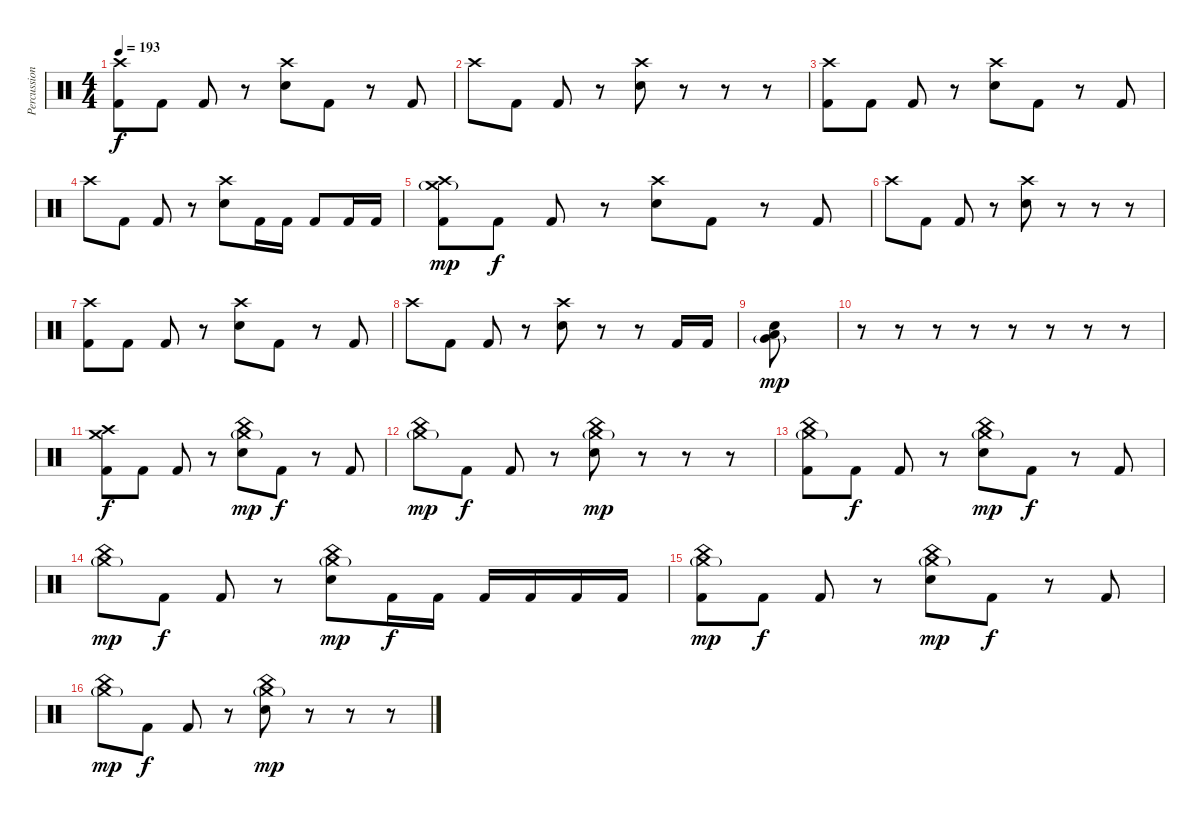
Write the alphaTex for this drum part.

\track ("Percussion" "Percussion") {instrument percussion}
\staff {score}
\articulation defaults
\ts (4 4)
\tempo 193
\clef neutral
\ks c
("Crash high (hit)" "Kick (hit) 2").8{dy f} "Kick (hit) 2".8 "Kick (hit) 2".8 r.8 ("Crash high (hit)" "Snare (hit) 2").8 "Kick (hit) 2".8 r.8 "Kick (hit) 2".8 |
"Crash high (hit)".8 "Kick (hit) 2".8 "Kick (hit) 2".8 r.8 ("Crash high (hit)" "Snare (hit) 2").8 r.8 r.8 r.8 |
("Crash high (hit)" "Kick (hit) 2").8 "Kick (hit) 2".8 "Kick (hit) 2".8 r.8 ("Crash high (hit)" "Snare (hit) 2").8 "Kick (hit) 2".8 r.8 "Kick (hit) 2".8 |
"Crash high (hit)".8 "Kick (hit) 2".8 "Kick (hit) 2".8 r.8 ("Crash high (hit)" "Snare (hit) 2").8 "Kick (hit) 2".16 "Kick (hit) 2".16 "Kick (hit) 2".8 "Kick (hit) 2".16 "Kick (hit) 2".16 |
("Crash high (hit)" "Crash medium (hit)"{g} "Kick (hit) 2").8{dy mp} "Kick (hit) 2".8{dy f} "Kick (hit) 2".8 r.8 ("Crash high (hit)" "Snare (hit) 2").8 "Kick (hit) 2".8 r.8 "Kick (hit) 2".8 |
"Crash high (hit)".8 "Kick (hit) 2".8 "Kick (hit) 2".8 r.8 ("Crash high (hit)" "Snare (hit) 2").8 r.8 r.8 r.8 |
("Crash high (hit)" "Kick (hit) 2").8 "Kick (hit) 2".8 "Kick (hit) 2".8 r.8 ("Crash high (hit)" "Snare (hit) 2").8 "Kick (hit) 2".8 r.8 "Kick (hit) 2".8 |
"Crash high (hit)".8 "Kick (hit) 2".8 "Kick (hit) 2".8 r.8 ("Crash high (hit)" "Snare (hit) 2").8 r.8 r.8 "Kick (hit) 2".16 "Kick (hit) 2".16 |
("Very Low Tom (hit)"{g} "Low Floor Tom (hit)" "Snare (hit) 2").8{dy mp} |
r.8 r.8 r.8 r.8 r.8 r.8 r.8 r.8 |
("Crash medium (hit)" "Crash high (hit)" "Kick (hit) 2").8{dy f} "Kick (hit) 2".8 "Kick (hit) 2".8 r.8 ("Crash medium (hit)"{g} "China (hit)" "Snare (hit) 2").8{dy mp} "Kick (hit) 2".8{dy f} r.8 "Kick (hit) 2".8 |
("Crash medium (hit)"{g} "China (hit)").8{dy mp} "Kick (hit) 2".8{dy f} "Kick (hit) 2".8 r.8 ("Crash medium (hit)"{g} "China (hit)" "Snare (hit) 2").8{dy mp} r.8 r.8 r.8 |
("Crash medium (hit)"{g} "China (hit)" "Kick (hit) 2").8 "Kick (hit) 2".8{dy f} "Kick (hit) 2".8 r.8 ("Crash medium (hit)"{g} "China (hit)" "Snare (hit) 2").8{dy mp} "Kick (hit) 2".8{dy f} r.8 "Kick (hit) 2".8 |
("Crash medium (hit)"{g} "China (hit)").8{dy mp} "Kick (hit) 2".8{dy f} "Kick (hit) 2".8 r.8 ("Crash medium (hit)"{g} "China (hit)" "Snare (hit) 2").8{dy mp} "Kick (hit) 2".16{dy f} "Kick (hit) 2".16 "Kick (hit) 2".16 "Kick (hit) 2".16 "Kick (hit) 2".16 "Kick (hit) 2".16 |
("Crash medium (hit)"{g} "China (hit)" "Kick (hit) 2").8{dy mp} "Kick (hit) 2".8{dy f} "Kick (hit) 2".8 r.8 ("Crash medium (hit)"{g} "China (hit)" "Snare (hit) 2").8{dy mp} "Kick (hit) 2".8{dy f} r.8 "Kick (hit) 2".8 |
("Crash medium (hit)"{g} "China (hit)").8{dy mp} "Kick (hit) 2".8{dy f} "Kick (hit) 2".8 r.8 ("Crash medium (hit)"{g} "China (hit)" "Snare (hit) 2").8{dy mp} r.8 r.8 r.8
